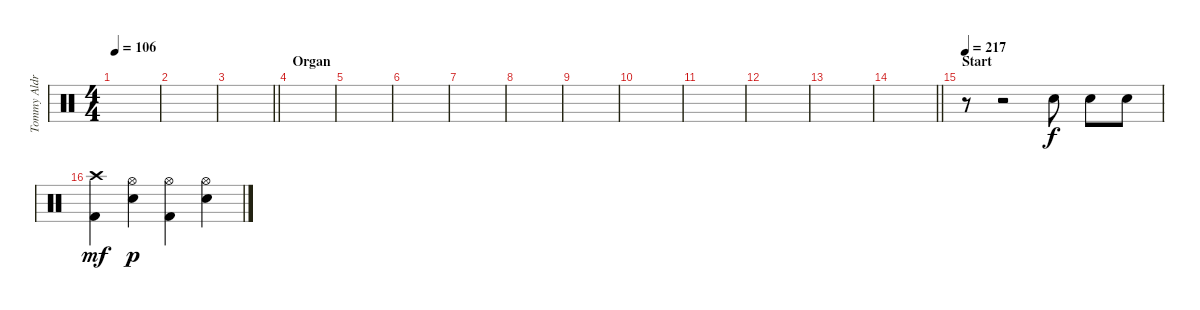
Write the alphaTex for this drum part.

\track ("Tommy Aldridge" "Tommy Aldr") {instrument percussion}
\staff {score}
\articulation defaults
\ts (4 4)
\tempo 106
\clef neutral
\ks c
|
|
\barLineRight lightlight
|
\section ("" "Organ")
|
|
|
|
|
|
|
|
|
|
\barLineRight lightlight
|
\section ("" "Start")
\tempo 217
r.8 r.2 "Snare (hit) 2".8 "Snare (hit) 2".8 "Snare (hit) 2".8 |
("Kick (hit) 2" "Crash high (hit)").4{dy mf} ("Hi-Hat (open)" "Snare (hit) 2").4{dy p} ("Kick (hit) 2" "Hi-Hat (open)").4 ("Hi-Hat (open)" "Snare (hit) 2").4
